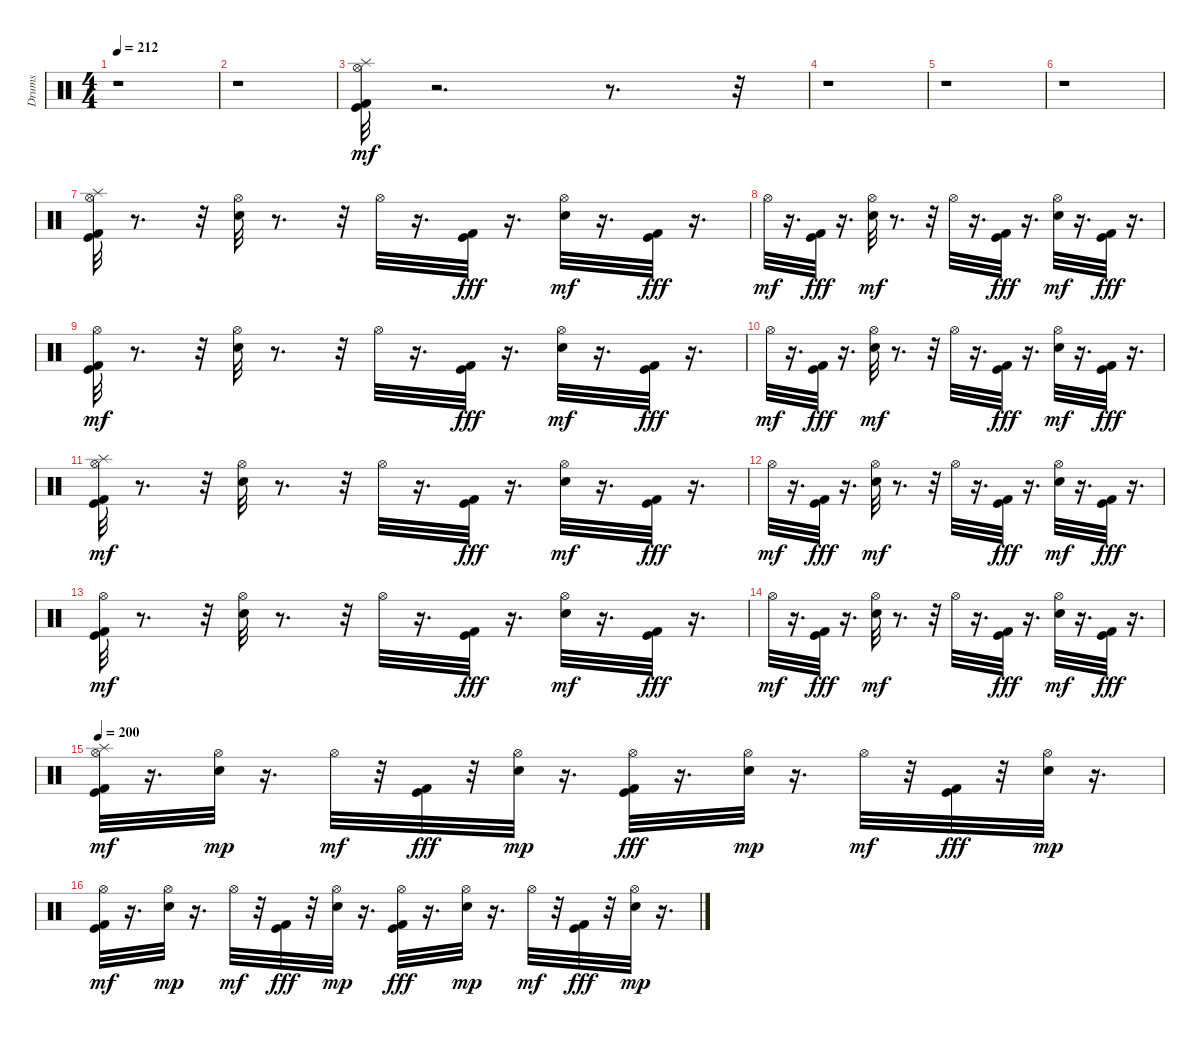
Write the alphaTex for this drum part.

\track ("Drums" "Drums") {instrument percussion}
\staff {score}
\articulation defaults
\ts (4 4)
\tempo 212
\clef neutral
\ks c
r.1{dy mf} |
r.1 |
("Kick (hit) 2" "Kick (hit)" "Splash (hit)" "Hi-Hat (open)").32 r.2{d} r.8{d} r.32 |
r.1 |
r.1 |
r.1 |
("Splash (hit)" "Kick (hit) 2" "Kick (hit)" "Hi-Hat (open)").32 r.8{d} r.32 ("Snare (hit) 2" "Hi-Hat (open)").32 r.8{d} r.32 "Hi-Hat (open)".32 r.16{d} ("Kick (hit)" "Kick (hit) 2").32{dy fff} r.16{d} ("Hi-Hat (open)" "Snare (hit) 2").32{dy mf} r.16{d} ("Kick (hit)" "Kick (hit) 2").32{dy fff} r.16{d} |
"Hi-Hat (open)".32{dy mf} r.16{d} ("Kick (hit)" "Kick (hit) 2").32{dy fff} r.16{d} ("Hi-Hat (open)" "Snare (hit) 2").32{dy mf} r.8{d} r.32 "Hi-Hat (open)".32 r.16{d} ("Kick (hit)" "Kick (hit) 2").32{dy fff} r.16{d} ("Hi-Hat (open)" "Snare (hit) 2").32{dy mf} r.16{d} ("Kick (hit)" "Kick (hit) 2").32{dy fff} r.16{d} |
("Kick (hit) 2" "Kick (hit)" "Hi-Hat (open)").32{dy mf} r.8{d} r.32 ("Snare (hit) 2" "Hi-Hat (open)").32 r.8{d} r.32 "Hi-Hat (open)".32 r.16{d} ("Kick (hit)" "Kick (hit) 2").32{dy fff} r.16{d} ("Hi-Hat (open)" "Snare (hit) 2").32{dy mf} r.16{d} ("Kick (hit)" "Kick (hit) 2").32{dy fff} r.16{d} |
"Hi-Hat (open)".32{dy mf} r.16{d} ("Kick (hit)" "Kick (hit) 2").32{dy fff} r.16{d} ("Hi-Hat (open)" "Snare (hit) 2").32{dy mf} r.8{d} r.32 "Hi-Hat (open)".32 r.16{d} ("Kick (hit)" "Kick (hit) 2").32{dy fff} r.16{d} ("Hi-Hat (open)" "Snare (hit) 2").32{dy mf} r.16{d} ("Kick (hit)" "Kick (hit) 2").32{dy fff} r.16{d} |
("Kick (hit) 2" "Kick (hit)" "Hi-Hat (open)" "Splash (hit)").32{dy mf} r.8{d} r.32 ("Snare (hit) 2" "Hi-Hat (open)").32 r.8{d} r.32 "Hi-Hat (open)".32 r.16{d} ("Kick (hit)" "Kick (hit) 2").32{dy fff} r.16{d} ("Hi-Hat (open)" "Snare (hit) 2").32{dy mf} r.16{d} ("Kick (hit)" "Kick (hit) 2").32{dy fff} r.16{d} |
"Hi-Hat (open)".32{dy mf} r.16{d} ("Kick (hit)" "Kick (hit) 2").32{dy fff} r.16{d} ("Hi-Hat (open)" "Snare (hit) 2").32{dy mf} r.8{d} r.32 "Hi-Hat (open)".32 r.16{d} ("Kick (hit)" "Kick (hit) 2").32{dy fff} r.16{d} ("Hi-Hat (open)" "Snare (hit) 2").32{dy mf} r.16{d} ("Kick (hit)" "Kick (hit) 2").32{dy fff} r.16{d} |
("Kick (hit) 2" "Kick (hit)" "Hi-Hat (open)").32{dy mf} r.8{d} r.32 ("Snare (hit) 2" "Hi-Hat (open)").32 r.8{d} r.32 "Hi-Hat (open)".32 r.16{d} ("Kick (hit)" "Kick (hit) 2").32{dy fff} r.16{d} ("Hi-Hat (open)" "Snare (hit) 2").32{dy mf} r.16{d} ("Kick (hit)" "Kick (hit) 2").32{dy fff} r.16{d} |
"Hi-Hat (open)".32{dy mf} r.16{d} ("Kick (hit)" "Kick (hit) 2").32{dy fff} r.16{d} ("Hi-Hat (open)" "Snare (hit) 2").32{dy mf} r.8{d} r.32 "Hi-Hat (open)".32 r.16{d} ("Kick (hit)" "Kick (hit) 2").32{dy fff} r.16{d} ("Hi-Hat (open)" "Snare (hit) 2").32{dy mf} r.16{d} ("Kick (hit)" "Kick (hit) 2").32{dy fff} r.16{d} |
\tempo 200
("Kick (hit) 2" "Kick (hit)" "Splash (hit)" "Hi-Hat (open)").32{dy mf} r.16{d} ("Hi-Hat (open)" "Snare (hit) 2").32{dy mp} r.16{d} "Hi-Hat (open)".32{dy mf} r.32 ("Kick (hit)" "Kick (hit) 2").32{dy fff} r.32 ("Hi-Hat (open)" "Snare (hit) 2").32{dy mp} r.16{d} ("Hi-Hat (open)" "Kick (hit) 2" "Kick (hit)").32{dy fff} r.16{d} ("Hi-Hat (open)" "Snare (hit) 2").32{dy mp} r.16{d} "Hi-Hat (open)".32{dy mf} r.32 ("Kick (hit)" "Kick (hit) 2").32{dy fff} r.32 ("Hi-Hat (open)" "Snare (hit) 2").32{dy mp} r.16{d} |
("Kick (hit) 2" "Kick (hit)" "Hi-Hat (open)").32{dy mf} r.16{d} ("Hi-Hat (open)" "Snare (hit) 2").32{dy mp} r.16{d} "Hi-Hat (open)".32{dy mf} r.32 ("Kick (hit)" "Kick (hit) 2").32{dy fff} r.32 ("Hi-Hat (open)" "Snare (hit) 2").32{dy mp} r.16{d} ("Hi-Hat (open)" "Kick (hit) 2" "Kick (hit)").32{dy fff} r.16{d} ("Hi-Hat (open)" "Snare (hit) 2").32{dy mp} r.16{d} "Hi-Hat (open)".32{dy mf} r.32 ("Kick (hit)" "Kick (hit) 2").32{dy fff} r.32 ("Hi-Hat (open)" "Snare (hit) 2").32{dy mp} r.16{d}
